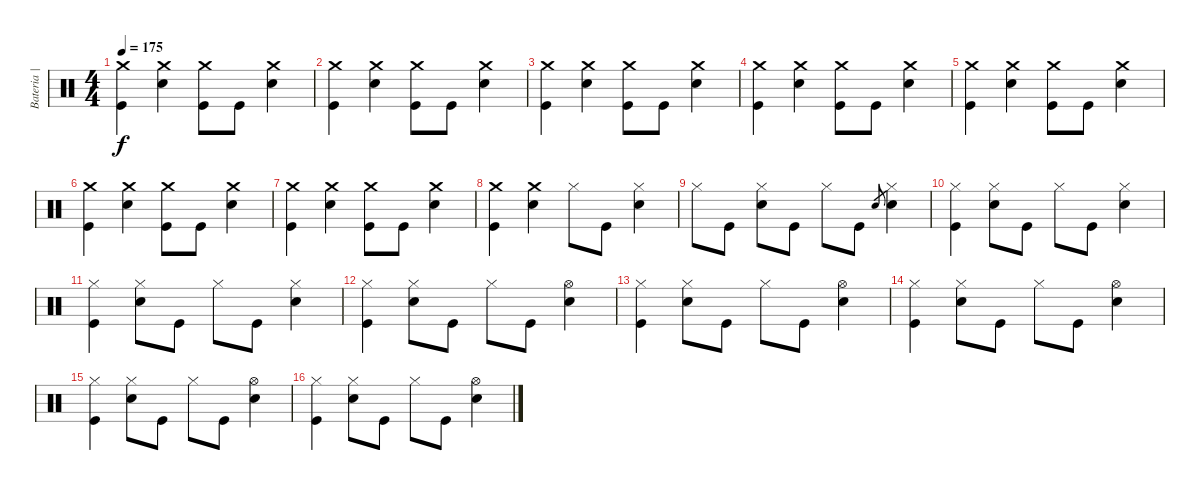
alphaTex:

\track ("Bateria | Fabinho" "Bateria | ") {instrument percussion}
\staff {score}
\articulation defaults
\ts (4 4)
\tempo 175
\clef neutral
\ks c
("Crash medium (hit)" "Kick (hit)").4{dy f} ("Crash medium (hit)" "Snare (hit) 2").4 ("Crash medium (hit)" "Kick (hit)").8 "Kick (hit)".8 ("Crash medium (hit)" "Snare (hit) 2").4 |
("Crash medium (hit)" "Kick (hit)").4 ("Crash medium (hit)" "Snare (hit) 2").4 ("Crash medium (hit)" "Kick (hit)").8 "Kick (hit)".8 ("Crash medium (hit)" "Snare (hit) 2").4 |
("Crash medium (hit)" "Kick (hit)").4 ("Crash medium (hit)" "Snare (hit) 2").4 ("Crash medium (hit)" "Kick (hit)").8 "Kick (hit)".8 ("Crash medium (hit)" "Snare (hit) 2").4 |
("Crash medium (hit)" "Kick (hit)").4 ("Crash medium (hit)" "Snare (hit) 2").4 ("Crash medium (hit)" "Kick (hit)").8 "Kick (hit)".8 ("Crash medium (hit)" "Snare (hit) 2").4 |
("Crash medium (hit)" "Kick (hit)").4 ("Crash medium (hit)" "Snare (hit) 2").4 ("Crash medium (hit)" "Kick (hit)").8 "Kick (hit)".8 ("Crash medium (hit)" "Snare (hit) 2").4 |
("Crash medium (hit)" "Kick (hit)").4 ("Crash medium (hit)" "Snare (hit) 2").4 ("Crash medium (hit)" "Kick (hit)").8 "Kick (hit)".8 ("Crash medium (hit)" "Snare (hit) 2").4 |
("Crash medium (hit)" "Kick (hit)").4 ("Crash medium (hit)" "Snare (hit) 2").4 ("Crash medium (hit)" "Kick (hit)").8 "Kick (hit)".8 ("Crash medium (hit)" "Snare (hit) 2").4 |
("Crash medium (hit)" "Kick (hit)").4 ("Crash medium (hit)" "Snare (hit) 2").4 "Hi-Hat (closed)".8 "Kick (hit)".8 ("Hi-Hat (closed)" "Snare (hit) 2").4 |
"Hi-Hat (closed)".8 "Kick (hit)".8 ("Hi-Hat (closed)" "Snare (hit) 2").8 "Kick (hit)".8 "Hi-Hat (closed)".8 "Kick (hit)".8 "Snare (hit) 2".8{gr} ("Hi-Hat (closed)" "Snare (hit) 2").4 |
("Hi-Hat (closed)" "Kick (hit)").4 ("Hi-Hat (closed)" "Snare (hit) 2").8 "Kick (hit)".8 "Hi-Hat (closed)".8 "Kick (hit)".8 ("Hi-Hat (closed)" "Snare (hit) 2").4 |
("Hi-Hat (closed)" "Kick (hit)").4 ("Hi-Hat (closed)" "Snare (hit) 2").8 "Kick (hit)".8 "Hi-Hat (closed)".8 "Kick (hit)".8 ("Hi-Hat (closed)" "Snare (hit) 2").4 |
("Hi-Hat (closed)" "Kick (hit)").4 ("Hi-Hat (closed)" "Snare (hit) 2").8 "Kick (hit)".8 "Hi-Hat (closed)".8 "Kick (hit)".8 ("Hi-Hat (open)" "Snare (hit) 2").4 |
("Hi-Hat (closed)" "Kick (hit)").4 ("Hi-Hat (closed)" "Snare (hit) 2").8 "Kick (hit)".8 "Hi-Hat (closed)".8 "Kick (hit)".8 ("Hi-Hat (open)" "Snare (hit) 2").4 |
("Hi-Hat (closed)" "Kick (hit)").4 ("Hi-Hat (closed)" "Snare (hit) 2").8 "Kick (hit)".8 "Hi-Hat (closed)".8 "Kick (hit)".8 ("Hi-Hat (open)" "Snare (hit) 2").4 |
("Hi-Hat (closed)" "Kick (hit)").4 ("Hi-Hat (closed)" "Snare (hit) 2").8 "Kick (hit)".8 "Hi-Hat (closed)".8 "Kick (hit)".8 ("Hi-Hat (open)" "Snare (hit) 2").4 |
("Hi-Hat (closed)" "Kick (hit)").4 ("Hi-Hat (closed)" "Snare (hit) 2").8 "Kick (hit)".8 "Hi-Hat (closed)".8 "Kick (hit)".8 ("Hi-Hat (open)" "Snare (hit) 2").4
